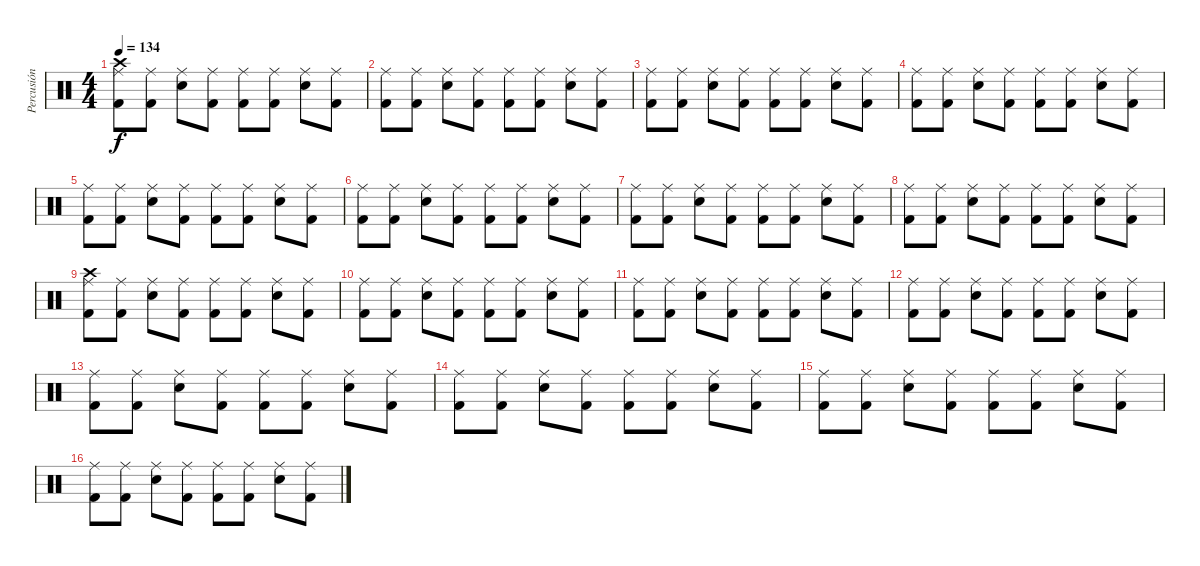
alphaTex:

\track ("Percusión" "Percusión") {instrument percussion}
\staff {score}
\articulation defaults
\ts (4 4)
\tempo 134
\clef neutral
\ks c
("Crash high (hit)" "Ride (middle)" "Kick (hit) 2").8{dy f} ("Ride (middle)" "Kick (hit) 2").8 ("Ride (middle)" "Snare (hit) 2").8 ("Ride (middle)" "Kick (hit) 2").8 ("Ride (middle)" "Kick (hit) 2").8 ("Ride (middle)" "Kick (hit) 2").8 ("Ride (middle)" "Snare (hit) 2").8 ("Ride (middle)" "Kick (hit) 2").8 |
("Ride (middle)" "Kick (hit) 2").8 ("Ride (middle)" "Kick (hit) 2").8 ("Ride (middle)" "Snare (hit) 2").8 ("Ride (middle)" "Kick (hit) 2").8 ("Ride (middle)" "Kick (hit) 2").8 ("Ride (middle)" "Kick (hit) 2").8 ("Ride (middle)" "Snare (hit) 2").8 ("Ride (middle)" "Kick (hit) 2").8 |
("Ride (middle)" "Kick (hit) 2").8 ("Ride (middle)" "Kick (hit) 2").8 ("Ride (middle)" "Snare (hit) 2").8 ("Ride (middle)" "Kick (hit) 2").8 ("Ride (middle)" "Kick (hit) 2").8 ("Ride (middle)" "Kick (hit) 2").8 ("Ride (middle)" "Snare (hit) 2").8 ("Ride (middle)" "Kick (hit) 2").8 |
("Ride (middle)" "Kick (hit) 2").8 ("Ride (middle)" "Kick (hit) 2").8 ("Ride (middle)" "Snare (hit) 2").8 ("Ride (middle)" "Kick (hit) 2").8 ("Ride (middle)" "Kick (hit) 2").8 ("Ride (middle)" "Kick (hit) 2").8 ("Ride (middle)" "Snare (hit) 2").8 ("Ride (middle)" "Kick (hit) 2").8 |
("Ride (middle)" "Kick (hit) 2").8 ("Ride (middle)" "Kick (hit) 2").8 ("Ride (middle)" "Snare (hit) 2").8 ("Ride (middle)" "Kick (hit) 2").8 ("Ride (middle)" "Kick (hit) 2").8 ("Ride (middle)" "Kick (hit) 2").8 ("Ride (middle)" "Snare (hit) 2").8 ("Ride (middle)" "Kick (hit) 2").8 |
("Ride (middle)" "Kick (hit) 2").8 ("Ride (middle)" "Kick (hit) 2").8 ("Ride (middle)" "Snare (hit) 2").8 ("Ride (middle)" "Kick (hit) 2").8 ("Ride (middle)" "Kick (hit) 2").8 ("Ride (middle)" "Kick (hit) 2").8 ("Ride (middle)" "Snare (hit) 2").8 ("Ride (middle)" "Kick (hit) 2").8 |
("Ride (middle)" "Kick (hit) 2").8 ("Ride (middle)" "Kick (hit) 2").8 ("Ride (middle)" "Snare (hit) 2").8 ("Ride (middle)" "Kick (hit) 2").8 ("Ride (middle)" "Kick (hit) 2").8 ("Ride (middle)" "Kick (hit) 2").8 ("Ride (middle)" "Snare (hit) 2").8 ("Ride (middle)" "Kick (hit) 2").8 |
("Ride (middle)" "Kick (hit) 2").8 ("Ride (middle)" "Kick (hit) 2").8 ("Ride (middle)" "Snare (hit) 2").8 ("Ride (middle)" "Kick (hit) 2").8 ("Ride (middle)" "Kick (hit) 2").8 ("Ride (middle)" "Kick (hit) 2").8 ("Ride (middle)" "Snare (hit) 2").8 ("Ride (middle)" "Kick (hit) 2").8 |
("Crash high (hit)" "Ride (middle)" "Kick (hit) 2").8 ("Ride (middle)" "Kick (hit) 2").8 ("Ride (middle)" "Snare (hit) 2").8 ("Ride (middle)" "Kick (hit) 2").8 ("Ride (middle)" "Kick (hit) 2").8 ("Ride (middle)" "Kick (hit) 2").8 ("Ride (middle)" "Snare (hit) 2").8 ("Ride (middle)" "Kick (hit) 2").8 |
("Ride (middle)" "Kick (hit) 2").8 ("Ride (middle)" "Kick (hit) 2").8 ("Ride (middle)" "Snare (hit) 2").8 ("Ride (middle)" "Kick (hit) 2").8 ("Ride (middle)" "Kick (hit) 2").8 ("Ride (middle)" "Kick (hit) 2").8 ("Ride (middle)" "Snare (hit) 2").8 ("Ride (middle)" "Kick (hit) 2").8 |
("Ride (middle)" "Kick (hit) 2").8 ("Ride (middle)" "Kick (hit) 2").8 ("Ride (middle)" "Snare (hit) 2").8 ("Ride (middle)" "Kick (hit) 2").8 ("Ride (middle)" "Kick (hit) 2").8 ("Ride (middle)" "Kick (hit) 2").8 ("Ride (middle)" "Snare (hit) 2").8 ("Ride (middle)" "Kick (hit) 2").8 |
("Ride (middle)" "Kick (hit) 2").8 ("Ride (middle)" "Kick (hit) 2").8 ("Ride (middle)" "Snare (hit) 2").8 ("Ride (middle)" "Kick (hit) 2").8 ("Ride (middle)" "Kick (hit) 2").8 ("Ride (middle)" "Kick (hit) 2").8 ("Ride (middle)" "Snare (hit) 2").8 ("Ride (middle)" "Kick (hit) 2").8 |
("Ride (middle)" "Kick (hit) 2").8 ("Ride (middle)" "Kick (hit) 2").8 ("Ride (middle)" "Snare (hit) 2").8 ("Ride (middle)" "Kick (hit) 2").8 ("Ride (middle)" "Kick (hit) 2").8 ("Ride (middle)" "Kick (hit) 2").8 ("Ride (middle)" "Snare (hit) 2").8 ("Ride (middle)" "Kick (hit) 2").8 |
("Ride (middle)" "Kick (hit) 2").8 ("Ride (middle)" "Kick (hit) 2").8 ("Ride (middle)" "Snare (hit) 2").8 ("Ride (middle)" "Kick (hit) 2").8 ("Ride (middle)" "Kick (hit) 2").8 ("Ride (middle)" "Kick (hit) 2").8 ("Ride (middle)" "Snare (hit) 2").8 ("Ride (middle)" "Kick (hit) 2").8 |
("Ride (middle)" "Kick (hit) 2").8 ("Ride (middle)" "Kick (hit) 2").8 ("Ride (middle)" "Snare (hit) 2").8 ("Ride (middle)" "Kick (hit) 2").8 ("Ride (middle)" "Kick (hit) 2").8 ("Ride (middle)" "Kick (hit) 2").8 ("Ride (middle)" "Snare (hit) 2").8 ("Ride (middle)" "Kick (hit) 2").8 |
("Ride (middle)" "Kick (hit) 2").8 ("Ride (middle)" "Kick (hit) 2").8 ("Ride (middle)" "Snare (hit) 2").8 ("Ride (middle)" "Kick (hit) 2").8 ("Ride (middle)" "Kick (hit) 2").8 ("Ride (middle)" "Kick (hit) 2").8 ("Ride (middle)" "Snare (hit) 2").8 ("Ride (middle)" "Kick (hit) 2").8
